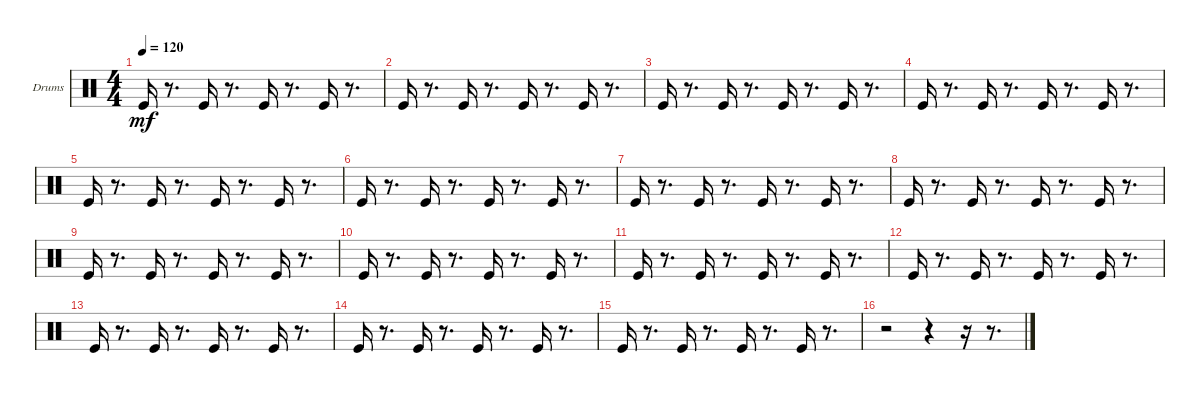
\bracketExtendMode groupsimilarinstruments
\firstSystemTrackNameOrientation horizontal
\otherSystemsTrackNameOrientation horizontal
\track ("Drums" "Drums") {instrument percussion}
\staff {score}
\articulation defaults
\ts (4 4)
\tempo 120
\clef neutral
\ks c "Kick (hit)".16{dy mf}
r.8{d} "Kick (hit)".16 r.8{d} "Kick (hit)".16 r.8{d} "Kick (hit)".16 r.8{d} |
"Kick (hit)".16 r.8{d} "Kick (hit)".16 r.8{d} "Kick (hit)".16 r.8{d} "Kick (hit)".16 r.8{d} |
"Kick (hit)".16 r.8{d} "Kick (hit)".16 r.8{d} "Kick (hit)".16 r.8{d} "Kick (hit)".16 r.8{d} |
"Kick (hit)".16 r.8{d} "Kick (hit)".16 r.8{d} "Kick (hit)".16 r.8{d} "Kick (hit)".16 r.8{d} |
"Kick (hit)".16 r.8{d} "Kick (hit)".16 r.8{d} "Kick (hit)".16 r.8{d} "Kick (hit)".16 r.8{d} |
"Kick (hit)".16 r.8{d} "Kick (hit)".16 r.8{d} "Kick (hit)".16 r.8{d} "Kick (hit)".16 r.8{d} |
"Kick (hit)".16 r.8{d} "Kick (hit)".16 r.8{d} "Kick (hit)".16 r.8{d} "Kick (hit)".16 r.8{d} |
"Kick (hit)".16 r.8{d} "Kick (hit)".16 r.8{d} "Kick (hit)".16 r.8{d} "Kick (hit)".16 r.8{d} |
"Kick (hit)".16 r.8{d} "Kick (hit)".16 r.8{d} "Kick (hit)".16 r.8{d} "Kick (hit)".16 r.8{d} |
"Kick (hit)".16 r.8{d} "Kick (hit)".16 r.8{d} "Kick (hit)".16 r.8{d} "Kick (hit)".16 r.8{d} |
"Kick (hit)".16 r.8{d} "Kick (hit)".16 r.8{d} "Kick (hit)".16 r.8{d} "Kick (hit)".16 r.8{d} |
"Kick (hit)".16 r.8{d} "Kick (hit)".16 r.8{d} "Kick (hit)".16 r.8{d} "Kick (hit)".16 r.8{d} |
"Kick (hit)".16 r.8{d} "Kick (hit)".16 r.8{d} "Kick (hit)".16 r.8{d} "Kick (hit)".16 r.8{d} |
"Kick (hit)".16 r.8{d} "Kick (hit)".16 r.8{d} "Kick (hit)".16 r.8{d} "Kick (hit)".16 r.8{d} |
"Kick (hit)".16 r.8{d} "Kick (hit)".16 r.8{d} "Kick (hit)".16 r.8{d} "Kick (hit)".16 r.8{d} |
r.2 r.4 r.16 r.8{d}
